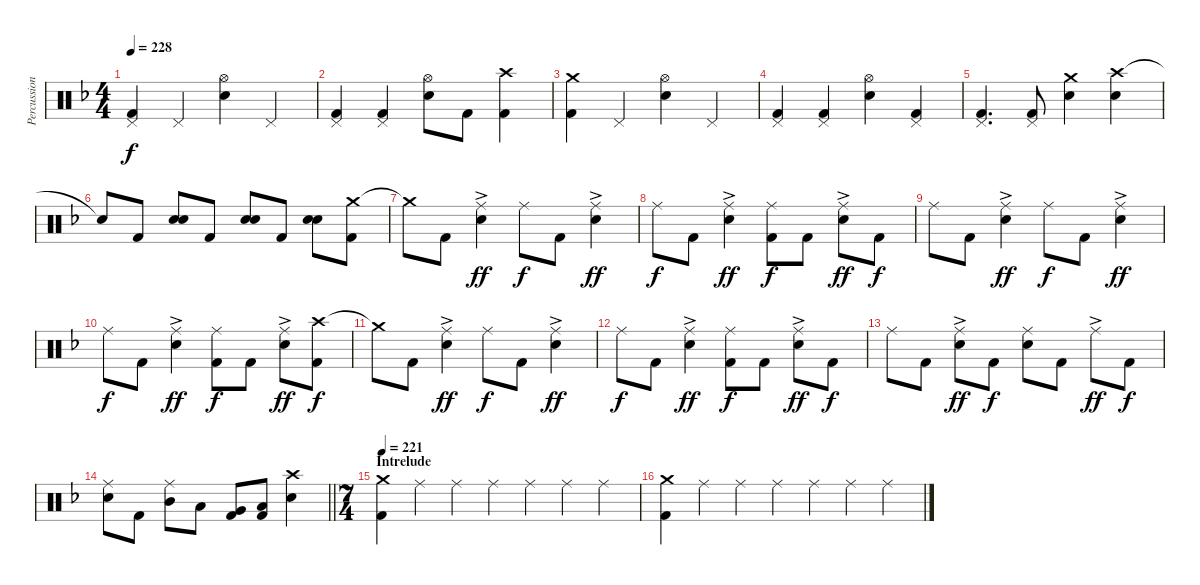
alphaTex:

\track ("Percussion" "Percussion") {instrument percussion}
\staff {score}
\articulation defaults
\ts (4 4)
\tempo 228
\clef neutral
\ks f
("Pedal Hi-Hat (hit)" "Kick (hit) 2").4{dy f} "Pedal Hi-Hat (hit)".4 ("Hi-Hat (open)" "Electric Snare (hit)").4 "Pedal Hi-Hat (hit)".4 |
("Pedal Hi-Hat (hit)" "Kick (hit) 2").4 ("Pedal Hi-Hat (hit)" "Kick (hit) 2").4 ("Hi-Hat (open)" "Electric Snare (hit)").8 "Kick (hit) 2".8 ("Crash high (hit)" "Kick (hit) 2").4 |
("Crash medium (hit)" "Kick (hit) 2").4 "Pedal Hi-Hat (hit)".4 ("Hi-Hat (open)" "Electric Snare (hit)").4 "Pedal Hi-Hat (hit)".4 |
("Pedal Hi-Hat (hit)" "Kick (hit) 2").4 ("Pedal Hi-Hat (hit)" "Kick (hit) 2").4 ("Hi-Hat (open)" "Electric Snare (hit)").4 ("Pedal Hi-Hat (hit)" "Kick (hit) 2").4 |
("Pedal Hi-Hat (hit)" "Kick (hit) 2").4{d} ("Pedal Hi-Hat (hit)" "Kick (hit) 2").8 ("Crash medium (hit)" "Electric Snare (hit)").4 ("Crash high (hit)" "Electric Snare (hit)").4 |
"Electric Snare (hit)"{t}.8 "Kick (hit) 2".8 ("Electric Snare (hit)" "Electric Snare (hit)").8 "Kick (hit) 2".8 ("Electric Snare (hit)" "Electric Snare (hit)").8 "Kick (hit) 2".8 ("Electric Snare (hit)" "Electric Snare (hit)").8 ("Crash medium (hit)" "Kick (hit) 2").8 |
"Crash medium (hit)"{t}.8 "Kick (hit) 2".8 ("Ride (middle)"{ac} "Electric Snare (hit)").4{dy ff} "Ride (middle)".8{dy f} "Kick (hit) 2".8 ("Ride (middle)"{ac} "Electric Snare (hit)").4{dy ff} |
"Ride (middle)".8{dy f} "Kick (hit) 2".8 ("Ride (middle)"{ac} "Electric Snare (hit)").4{dy ff} ("Ride (middle)" "Kick (hit) 2").8{dy f} "Kick (hit) 2".8 ("Ride (middle)"{ac} "Electric Snare (hit)").8{dy ff} "Kick (hit) 2".8{dy f} |
"Ride (middle)".8 "Kick (hit) 2".8 ("Ride (middle)"{ac} "Electric Snare (hit)").4{dy ff} "Ride (middle)".8{dy f} "Kick (hit) 2".8 ("Ride (middle)"{ac} "Electric Snare (hit)").4{dy ff} |
"Ride (middle)".8{dy f} "Kick (hit) 2".8 ("Ride (middle)"{ac} "Electric Snare (hit)").4{dy ff} ("Ride (middle)" "Kick (hit) 2").8{dy f} "Kick (hit) 2".8 ("Ride (middle)"{ac} "Electric Snare (hit)").8{dy ff} ("Crash high (hit)" "Kick (hit) 2").8{dy f} |
"Crash medium (hit)"{t}.8 "Kick (hit) 2".8 ("Ride (middle)"{ac} "Electric Snare (hit)").4{dy ff} "Ride (middle)".8{dy f} "Kick (hit) 2".8 ("Ride (middle)"{ac} "Electric Snare (hit)").4{dy ff} |
"Ride (middle)".8{dy f} "Kick (hit) 2".8 ("Ride (middle)"{ac} "Electric Snare (hit)").4{dy ff} ("Ride (middle)" "Kick (hit) 2").8{dy f} "Kick (hit) 2".8 ("Ride (middle)"{ac} "Electric Snare (hit)").8{dy ff} "Kick (hit) 2".8{dy f} |
"Ride (middle)".8 "Kick (hit) 2".8 ("Ride (middle)"{ac} "Electric Snare (hit)").8{dy ff} "Kick (hit) 2".8{dy f} ("Ride (middle)" "Electric Snare (hit)").8 "Kick (hit) 2".8 "Ride (middle)"{ac}.8{dy ff} "Kick (hit) 2".8{dy f} |
\barLineRight lightlight
("Ride (middle)" "Electric Snare (hit)").8 "Kick (hit) 2".8 ("Ride (middle)" "Mid Tom (hit)").8 "Low Tom (hit)".8 ("Very Low Tom (hit)" "Kick (hit) 2").8 ("Low Floor Tom (hit)" "Kick (hit) 2").8 ("Crash high (hit)" "Electric Snare (hit)").4 |
\ts (7 4)
\section ("" "Intrelude")
\tempo 221
("Crash medium (hit)" "Kick (hit) 2").4 "Ride (middle)".4 "Ride (middle)".4 "Ride (middle)".4 "Ride (middle)".4 "Ride (middle)".4 "Ride (middle)".4 |
("Crash medium (hit)" "Kick (hit) 2").4 "Ride (middle)".4 "Ride (middle)".4 "Ride (middle)".4 "Ride (middle)".4 "Ride (middle)".4 "Ride (middle)".4
